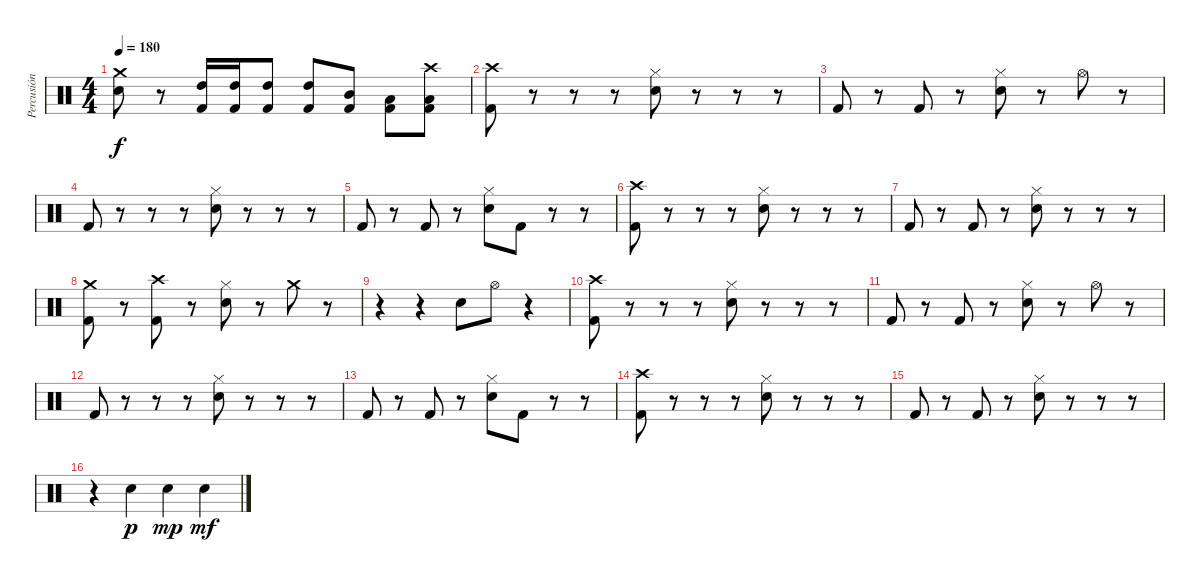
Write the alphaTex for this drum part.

\track ("Percusión" "Percusión") {instrument percussion}
\staff {score}
\articulation defaults
\ts (4 4)
\tempo 180
\clef neutral
\ks c
("Crash medium (hit)" "Snare (hit) 2").8{dy f} r.8 ("High Tom (hit)" "Kick (hit) 2").16 ("High Tom (hit)" "Kick (hit) 2").16 ("High Tom (hit)" "Kick (hit) 2").8 ("High Tom (hit)" "Kick (hit) 2").8 ("Mid Tom (hit)" "Kick (hit) 2").8 ("Low Tom (hit)" "Kick (hit) 2").8 ("Crash high (hit)" "Low Tom (hit)" "Kick (hit) 2").8 |
("Crash high (hit)" "Kick (hit) 2").8 r.8 r.8 r.8 ("Hi-Hat (closed)" "Snare (hit) 2").8 r.8 r.8 r.8 |
"Kick (hit) 2".8 r.8 "Kick (hit) 2".8 r.8 ("Hi-Hat (closed)" "Snare (hit) 2").8 r.8 "Hi-Hat (open)".8 r.8 |
"Kick (hit) 2".8 r.8 r.8 r.8 ("Hi-Hat (closed)" "Snare (hit) 2").8 r.8 r.8 r.8 |
"Kick (hit) 2".8 r.8 "Kick (hit) 2".8 r.8 ("Hi-Hat (closed)" "Snare (hit) 2").8 "Kick (hit) 2".8 r.8 r.8 |
("Crash high (hit)" "Kick (hit) 2").8 r.8 r.8 r.8 ("Hi-Hat (closed)" "Snare (hit) 2").8 r.8 r.8 r.8 |
"Kick (hit) 2".8 r.8 "Kick (hit) 2".8 r.8 ("Hi-Hat (closed)" "Snare (hit) 2").8 r.8 r.8 r.8 |
("Crash medium (hit)" "Kick (hit) 2").8 r.8 ("Crash high (hit)" "Kick (hit) 2").8 r.8 ("Hi-Hat (closed)" "Snare (hit) 2").8 r.8 "Crash medium (hit)".8 r.8 |
r.4 r.4 "Snare (hit) 2".8 "Hi-Hat (open)".8 r.4 |
("Crash high (hit)" "Kick (hit) 2").8 r.8 r.8 r.8 ("Hi-Hat (closed)" "Snare (hit) 2").8 r.8 r.8 r.8 |
"Kick (hit) 2".8 r.8 "Kick (hit) 2".8 r.8 ("Hi-Hat (closed)" "Snare (hit) 2").8 r.8 "Hi-Hat (open)".8 r.8 |
"Kick (hit) 2".8 r.8 r.8 r.8 ("Hi-Hat (closed)" "Snare (hit) 2").8 r.8 r.8 r.8 |
"Kick (hit) 2".8 r.8 "Kick (hit) 2".8 r.8 ("Hi-Hat (closed)" "Snare (hit) 2").8 "Kick (hit) 2".8 r.8 r.8 |
("Crash high (hit)" "Kick (hit) 2").8 r.8 r.8 r.8 ("Hi-Hat (closed)" "Snare (hit) 2").8 r.8 r.8 r.8 |
"Kick (hit) 2".8 r.8 "Kick (hit) 2".8 r.8 ("Hi-Hat (closed)" "Snare (hit) 2").8 r.8 r.8 r.8 |
r.4 "Snare (hit) 2".4{dy p} "Snare (hit) 2".4{dy mp} "Snare (hit) 2".4{dy mf}
